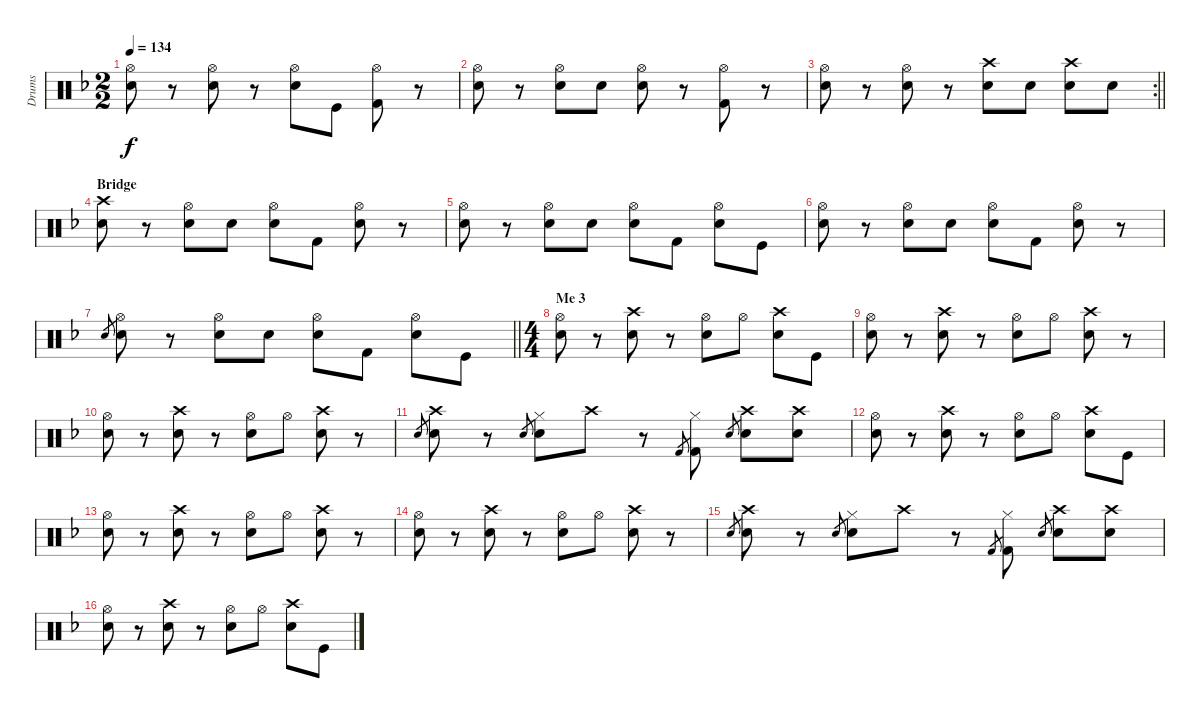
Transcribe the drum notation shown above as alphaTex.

\track ("Drums" "Drums") {instrument percussion}
\staff {score}
\articulation defaults
\ts (2 2)
\tempo 134
\clef neutral
\ks f
("Snare (hit) 2" "Hi-Hat (open)").8{dy f} r.8 ("Snare (hit) 2" "Hi-Hat (open)").8 r.8 ("Electric Snare (hit)" "Hi-Hat (open)").8 "Kick (hit)".8 ("Kick (hit) 2" "Hi-Hat (open)").8 r.8 |
("Snare (hit) 2" "Hi-Hat (open)").8 r.8 ("Snare (hit) 2" "Hi-Hat (open)").8 "Snare (hit) 2".8 ("Electric Snare (hit)" "Hi-Hat (open)").8 r.8 ("Kick (hit) 2" "Hi-Hat (open)").8 r.8 |
\rc 2
\barLineRight lightlight
("Snare (hit) 2" "Hi-Hat (open)").8 r.8 ("Snare (hit) 2" "Hi-Hat (open)").8 r.8 ("Snare (hit) 2" "Crash high (hit)").8 "Snare (hit) 2".8 ("Electric Snare (hit)" "Crash high (hit)").8 "Electric Snare (hit)".8 |
\section ("" "Bridge")
("Snare (hit) 2" "Crash high (hit)").8 r.8 ("Snare (hit) 2" "Hi-Hat (open)").8 "Electric Snare (hit)".8 ("Snare (hit) 2" "Hi-Hat (open)").8 "Kick (hit) 2".8 ("Snare (hit) 2" "Hi-Hat (open)").8 r.8 |
("Snare (hit) 2" "Hi-Hat (open)").8 r.8 ("Snare (hit) 2" "Hi-Hat (open)").8 "Electric Snare (hit)".8 ("Snare (hit) 2" "Hi-Hat (open)").8 "Kick (hit) 2".8 ("Snare (hit) 2" "Hi-Hat (open)").8 "Kick (hit)".8 |
("Snare (hit) 2" "Hi-Hat (open)").8 r.8 ("Snare (hit) 2" "Hi-Hat (open)").8 "Electric Snare (hit)".8 ("Snare (hit) 2" "Hi-Hat (open)").8 "Kick (hit) 2".8 ("Snare (hit) 2" "Hi-Hat (open)").8 r.8 |
\barLineRight lightlight "Snare (hit) 2".8{gr}
("Snare (hit) 2" "Hi-Hat (open)").8 r.8 ("Snare (hit) 2" "Hi-Hat (open)").8 "Electric Snare (hit)".8 ("Snare (hit) 2" "Hi-Hat (open)").8 "Kick (hit) 2".8 ("Snare (hit) 2" "Hi-Hat (open)").8 "Kick (hit)".8 |
\ts (4 4)
\section ("" "Me 3")
("Snare (hit) 2" "Hi-Hat (open)").8 r.8 ("Electric Snare (hit)" "Crash high (hit)").8 r.8 ("Snare (hit) 2" "Hi-Hat (open)").8 "Hi-Hat (open)".8 ("Electric Snare (hit)" "Crash high (hit)").8 "Kick (hit)".8 |
("Snare (hit) 2" "Hi-Hat (open)").8 r.8 ("Electric Snare (hit)" "Crash high (hit)").8 r.8 ("Snare (hit) 2" "Hi-Hat (open)").8 "Hi-Hat (open)".8 ("Electric Snare (hit)" "Crash high (hit)").8 r.8 |
("Snare (hit) 2" "Hi-Hat (open)").8 r.8 ("Electric Snare (hit)" "Crash high (hit)").8 r.8 ("Snare (hit) 2" "Hi-Hat (open)").8 "Hi-Hat (open)".8 ("Electric Snare (hit)" "Crash high (hit)").8 r.8 |
"Electric Snare (hit)".8{gr} ("Electric Snare (hit)" "Crash high (hit)").8 r.8 "Electric Snare (hit)".8{gr} ("Electric Snare (hit)" "Hi-Hat (closed)").8 "Crash high (hit)".8 r.8 "Kick (hit) 2".8{gr} ("Kick (hit) 2" "Hi-Hat (closed)").8 "Electric Snare (hit)".8{gr} ("Electric Snare (hit)" "Crash high (hit)").8 ("Electric Snare (hit)" "Crash high (hit)").8 |
("Snare (hit) 2" "Hi-Hat (open)").8 r.8 ("Electric Snare (hit)" "Crash high (hit)").8 r.8 ("Snare (hit) 2" "Hi-Hat (open)").8 "Hi-Hat (open)".8 ("Electric Snare (hit)" "Crash high (hit)").8 "Kick (hit)".8 |
("Snare (hit) 2" "Hi-Hat (open)").8 r.8 ("Electric Snare (hit)" "Crash high (hit)").8 r.8 ("Snare (hit) 2" "Hi-Hat (open)").8 "Hi-Hat (open)".8 ("Electric Snare (hit)" "Crash high (hit)").8 r.8 |
("Snare (hit) 2" "Hi-Hat (open)").8 r.8 ("Electric Snare (hit)" "Crash high (hit)").8 r.8 ("Snare (hit) 2" "Hi-Hat (open)").8 "Hi-Hat (open)".8 ("Electric Snare (hit)" "Crash high (hit)").8 r.8 |
"Electric Snare (hit)".8{gr} ("Electric Snare (hit)" "Crash high (hit)").8 r.8 "Electric Snare (hit)".8{gr} ("Electric Snare (hit)" "Hi-Hat (closed)").8 "Crash high (hit)".8 r.8 "Kick (hit) 2".8{gr} ("Kick (hit) 2" "Hi-Hat (closed)").8 "Electric Snare (hit)".8{gr} ("Electric Snare (hit)" "Crash high (hit)").8 ("Electric Snare (hit)" "Crash high (hit)").8 |
("Snare (hit) 2" "Hi-Hat (open)").8 r.8 ("Electric Snare (hit)" "Crash high (hit)").8 r.8 ("Snare (hit) 2" "Hi-Hat (open)").8 "Hi-Hat (open)".8 ("Electric Snare (hit)" "Crash high (hit)").8 "Kick (hit)".8
